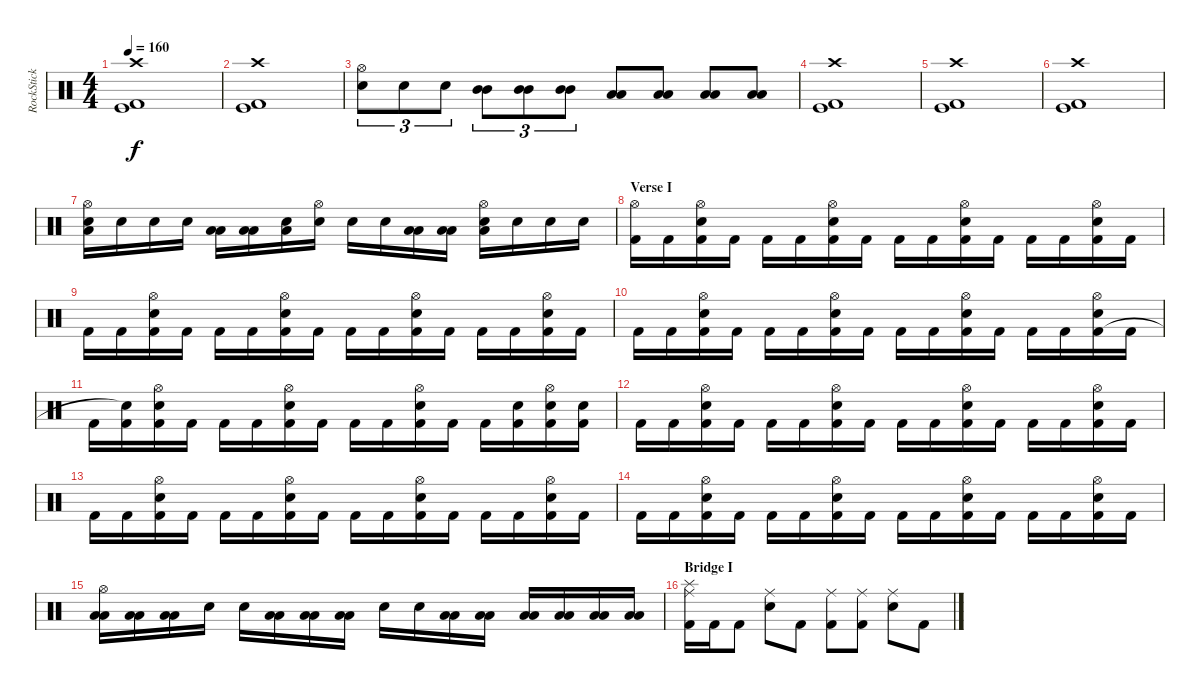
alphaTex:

\track ("RockStick" "RockStick") {instrument percussion}
\staff {score}
\articulation defaults
\ts (4 4)
\tempo 160
\clef neutral
\ks c
("Kick (hit) 2" "Kick (hit)" "Crash high (hit)").1{dy f} |
("Kick (hit) 2" "Kick (hit)" "Crash high (hit)").1 |
("Electric Snare (hit)" "Hi-Hat (open)").8{tu (3 2)} "Electric Snare (hit)".8{tu (3 2)} "Electric Snare (hit)".8{tu (3 2)} ("Mid Tom (hit)" "Mid Tom (hit)").8{tu (3 2)} ("Mid Tom (hit)" "Mid Tom (hit)").8{tu (3 2)} ("Mid Tom (hit)" "Mid Tom (hit)").8{tu (3 2)} ("Low Tom (hit)" "Low Tom (hit)").8 ("Low Tom (hit)" "Low Tom (hit)").8 ("Low Floor Tom (hit)" "Low Floor Tom (hit)").8 ("Low Floor Tom (hit)" "Low Floor Tom (hit)").8 |
("Kick (hit) 2" "Kick (hit)" "Crash high (hit)").1 |
("Kick (hit) 2" "Kick (hit)" "Crash high (hit)").1 |
("Kick (hit) 2" "Kick (hit)" "Crash high (hit)").1 |
("Low Tom (hit)" "Electric Snare (hit)" "Hi-Hat (open)").16 "Electric Snare (hit)".16 "Electric Snare (hit)".16 "Electric Snare (hit)".16 ("Low Tom (hit)" "Low Tom (hit)").16 ("Low Tom (hit)" "Low Tom (hit)").16 ("Low Tom (hit)" "Electric Snare (hit)").16 ("Electric Snare (hit)" "Hi-Hat (open)").16 "Electric Snare (hit)".16 "Electric Snare (hit)".16 ("Low Tom (hit)" "Low Tom (hit)").16 ("Low Tom (hit)" "Low Tom (hit)").16 ("Low Tom (hit)" "Electric Snare (hit)" "Hi-Hat (open)").16 "Electric Snare (hit)".16 "Electric Snare (hit)".16 "Electric Snare (hit)".16 |
\section ("" "Verse I")
("Kick (hit) 2" "Hi-Hat (open)").16 "Kick (hit) 2".16 ("Electric Snare (hit)" "Kick (hit) 2" "Hi-Hat (open)").16 "Kick (hit) 2".16 "Kick (hit) 2".16 "Kick (hit) 2".16 ("Electric Snare (hit)" "Kick (hit) 2" "Hi-Hat (open)").16 "Kick (hit) 2".16 "Kick (hit) 2".16 "Kick (hit) 2".16 ("Electric Snare (hit)" "Kick (hit) 2" "Hi-Hat (open)").16 "Kick (hit) 2".16 "Kick (hit) 2".16 "Kick (hit) 2".16 ("Electric Snare (hit)" "Kick (hit) 2" "Hi-Hat (open)").16 "Kick (hit) 2".16 |
"Kick (hit) 2".16 "Kick (hit) 2".16 ("Electric Snare (hit)" "Kick (hit) 2" "Hi-Hat (open)").16 "Kick (hit) 2".16 "Kick (hit) 2".16 "Kick (hit) 2".16 ("Electric Snare (hit)" "Kick (hit) 2" "Hi-Hat (open)").16 "Kick (hit) 2".16 "Kick (hit) 2".16 "Kick (hit) 2".16 ("Electric Snare (hit)" "Kick (hit) 2" "Hi-Hat (open)").16 "Kick (hit) 2".16 "Kick (hit) 2".16 "Kick (hit) 2".16 ("Electric Snare (hit)" "Kick (hit) 2" "Hi-Hat (open)").16 "Kick (hit) 2".16 |
"Kick (hit) 2".16 "Kick (hit) 2".16 ("Electric Snare (hit)" "Kick (hit) 2" "Hi-Hat (open)").16 "Kick (hit) 2".16 "Kick (hit) 2".16 "Kick (hit) 2".16 ("Electric Snare (hit)" "Kick (hit) 2" "Hi-Hat (open)").16 "Kick (hit) 2".16 "Kick (hit) 2".16 "Kick (hit) 2".16 ("Electric Snare (hit)" "Kick (hit) 2" "Hi-Hat (open)").16 "Kick (hit) 2".16 "Kick (hit) 2".16 "Kick (hit) 2".16 ("Electric Snare (hit)" "Kick (hit) 2" "Hi-Hat (open)").16 "Kick (hit) 2".16 |
"Kick (hit) 2".16 ("Kick (hit) 2" "Snare (hit)"{t}).16 ("Electric Snare (hit)" "Kick (hit) 2" "Hi-Hat (open)").16 "Kick (hit) 2".16 "Kick (hit) 2".16 "Kick (hit) 2".16 ("Electric Snare (hit)" "Kick (hit) 2" "Hi-Hat (open)").16 "Kick (hit) 2".16 "Kick (hit) 2".16 "Kick (hit) 2".16 ("Electric Snare (hit)" "Kick (hit) 2" "Hi-Hat (open)").16 "Kick (hit) 2".16 "Kick (hit) 2".16 ("Electric Snare (hit)" "Kick (hit) 2").16 ("Electric Snare (hit)" "Kick (hit) 2" "Hi-Hat (open)").16 ("Electric Snare (hit)" "Kick (hit) 2").16 |
"Kick (hit) 2".16 "Kick (hit) 2".16 ("Electric Snare (hit)" "Kick (hit) 2" "Hi-Hat (open)").16 "Kick (hit) 2".16 "Kick (hit) 2".16 "Kick (hit) 2".16 ("Electric Snare (hit)" "Kick (hit) 2" "Hi-Hat (open)").16 "Kick (hit) 2".16 "Kick (hit) 2".16 "Kick (hit) 2".16 ("Electric Snare (hit)" "Kick (hit) 2" "Hi-Hat (open)").16 "Kick (hit) 2".16 "Kick (hit) 2".16 "Kick (hit) 2".16 ("Electric Snare (hit)" "Kick (hit) 2" "Hi-Hat (open)").16 "Kick (hit) 2".16 |
"Kick (hit) 2".16 "Kick (hit) 2".16 ("Electric Snare (hit)" "Kick (hit) 2" "Hi-Hat (open)").16 "Kick (hit) 2".16 "Kick (hit) 2".16 "Kick (hit) 2".16 ("Electric Snare (hit)" "Kick (hit) 2" "Hi-Hat (open)").16 "Kick (hit) 2".16 "Kick (hit) 2".16 "Kick (hit) 2".16 ("Electric Snare (hit)" "Kick (hit) 2" "Hi-Hat (open)").16 "Kick (hit) 2".16 "Kick (hit) 2".16 "Kick (hit) 2".16 ("Electric Snare (hit)" "Kick (hit) 2" "Hi-Hat (open)").16 "Kick (hit) 2".16 |
"Kick (hit) 2".16 "Kick (hit) 2".16 ("Electric Snare (hit)" "Kick (hit) 2" "Hi-Hat (open)").16 "Kick (hit) 2".16 "Kick (hit) 2".16 "Kick (hit) 2".16 ("Electric Snare (hit)" "Kick (hit) 2" "Hi-Hat (open)").16 "Kick (hit) 2".16 "Kick (hit) 2".16 "Kick (hit) 2".16 ("Electric Snare (hit)" "Kick (hit) 2" "Hi-Hat (open)").16 "Kick (hit) 2".16 "Kick (hit) 2".16 "Kick (hit) 2".16 ("Electric Snare (hit)" "Kick (hit) 2" "Hi-Hat (open)").16 "Kick (hit) 2".16 |
("Low Tom (hit)" "Low Tom (hit)" "Hi-Hat (open)").16 ("Low Tom (hit)" "Low Tom (hit)").16 ("Low Tom (hit)" "Low Tom (hit)").16 "Electric Snare (hit)".16 "Electric Snare (hit)".16 ("Low Tom (hit)" "Low Tom (hit)").16 ("Low Tom (hit)" "Low Tom (hit)").16 ("Low Tom (hit)" "Low Tom (hit)").16 "Electric Snare (hit)".16 "Electric Snare (hit)".16 ("Low Tom (hit)" "Low Tom (hit)").16 ("Low Tom (hit)" "Low Tom (hit)").16 ("Low Floor Tom (hit)" "Low Floor Tom (hit)").16 ("Low Floor Tom (hit)" "Low Floor Tom (hit)").16 ("Low Floor Tom (hit)" "Low Floor Tom (hit)").16 ("Low Floor Tom (hit)" "Low Floor Tom (hit)").16 |
\section ("" "Bridge I")
("Kick (hit) 2" "Ride (middle)" "Splash (hit)").16 "Kick (hit) 2".16 "Kick (hit) 2".8 ("Electric Snare (hit)" "Ride (middle)").8 "Kick (hit) 2".8 ("Kick (hit) 2" "Ride (middle)").8 ("Kick (hit) 2" "Ride (middle)").8 ("Electric Snare (hit)" "Ride (middle)").8 "Kick (hit) 2".8
